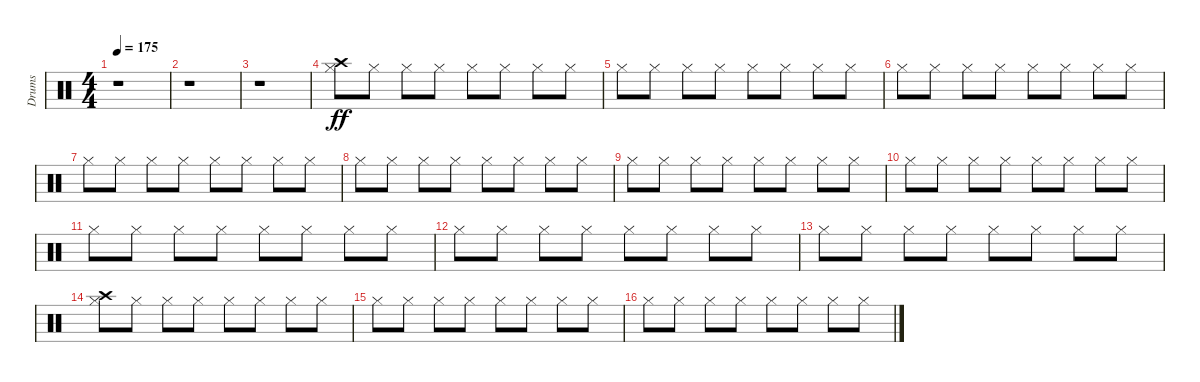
\track ("Drums" "Drums") {instrument percussion}
\staff {score}
\articulation defaults
\ts (4 4)
\tempo 175
\clef neutral
\ks c
r.1{dy f} |
r.1 |
r.1 |
("Hi-Hat (closed)" "Crash high (hit)").8{dy ff} "Hi-Hat (closed)".8 "Hi-Hat (closed)".8 "Hi-Hat (closed)".8 "Hi-Hat (closed)".8 "Hi-Hat (closed)".8 "Hi-Hat (closed)".8 "Hi-Hat (closed)".8 |
"Hi-Hat (closed)".8 "Hi-Hat (closed)".8 "Hi-Hat (closed)".8 "Hi-Hat (closed)".8 "Hi-Hat (closed)".8 "Hi-Hat (closed)".8 "Hi-Hat (closed)".8 "Hi-Hat (closed)".8 |
"Hi-Hat (closed)".8 "Hi-Hat (closed)".8 "Hi-Hat (closed)".8 "Hi-Hat (closed)".8 "Hi-Hat (closed)".8 "Hi-Hat (closed)".8 "Hi-Hat (closed)".8 "Hi-Hat (closed)".8 |
"Hi-Hat (closed)".8 "Hi-Hat (closed)".8 "Hi-Hat (closed)".8 "Hi-Hat (closed)".8 "Hi-Hat (closed)".8 "Hi-Hat (closed)".8 "Hi-Hat (closed)".8 "Hi-Hat (closed)".8 |
"Hi-Hat (closed)".8 "Hi-Hat (closed)".8 "Hi-Hat (closed)".8 "Hi-Hat (closed)".8 "Hi-Hat (closed)".8 "Hi-Hat (closed)".8 "Hi-Hat (closed)".8 "Hi-Hat (closed)".8 |
"Hi-Hat (closed)".8 "Hi-Hat (closed)".8 "Hi-Hat (closed)".8 "Hi-Hat (closed)".8 "Hi-Hat (closed)".8 "Hi-Hat (closed)".8 "Hi-Hat (closed)".8 "Hi-Hat (closed)".8 |
"Hi-Hat (closed)".8 "Hi-Hat (closed)".8 "Hi-Hat (closed)".8 "Hi-Hat (closed)".8 "Hi-Hat (closed)".8 "Hi-Hat (closed)".8 "Hi-Hat (closed)".8 "Hi-Hat (closed)".8 |
"Hi-Hat (closed)".8 "Hi-Hat (closed)".8 "Hi-Hat (closed)".8 "Hi-Hat (closed)".8 "Hi-Hat (closed)".8 "Hi-Hat (closed)".8 "Hi-Hat (closed)".8 "Hi-Hat (closed)".8 |
"Hi-Hat (closed)".8 "Hi-Hat (closed)".8 "Hi-Hat (closed)".8 "Hi-Hat (closed)".8 "Hi-Hat (closed)".8 "Hi-Hat (closed)".8 "Hi-Hat (closed)".8 "Hi-Hat (closed)".8 |
"Hi-Hat (closed)".8 "Hi-Hat (closed)".8 "Hi-Hat (closed)".8 "Hi-Hat (closed)".8 "Hi-Hat (closed)".8 "Hi-Hat (closed)".8 "Hi-Hat (closed)".8 "Hi-Hat (closed)".8 |
("Hi-Hat (closed)" "Crash high (hit)").8 "Hi-Hat (closed)".8 "Hi-Hat (closed)".8 "Hi-Hat (closed)".8 "Hi-Hat (closed)".8 "Hi-Hat (closed)".8 "Hi-Hat (closed)".8 "Hi-Hat (closed)".8 |
"Hi-Hat (closed)".8 "Hi-Hat (closed)".8 "Hi-Hat (closed)".8 "Hi-Hat (closed)".8 "Hi-Hat (closed)".8 "Hi-Hat (closed)".8 "Hi-Hat (closed)".8 "Hi-Hat (closed)".8 |
"Hi-Hat (closed)".8 "Hi-Hat (closed)".8 "Hi-Hat (closed)".8 "Hi-Hat (closed)".8 "Hi-Hat (closed)".8 "Hi-Hat (closed)".8 "Hi-Hat (closed)".8 "Hi-Hat (closed)".8
